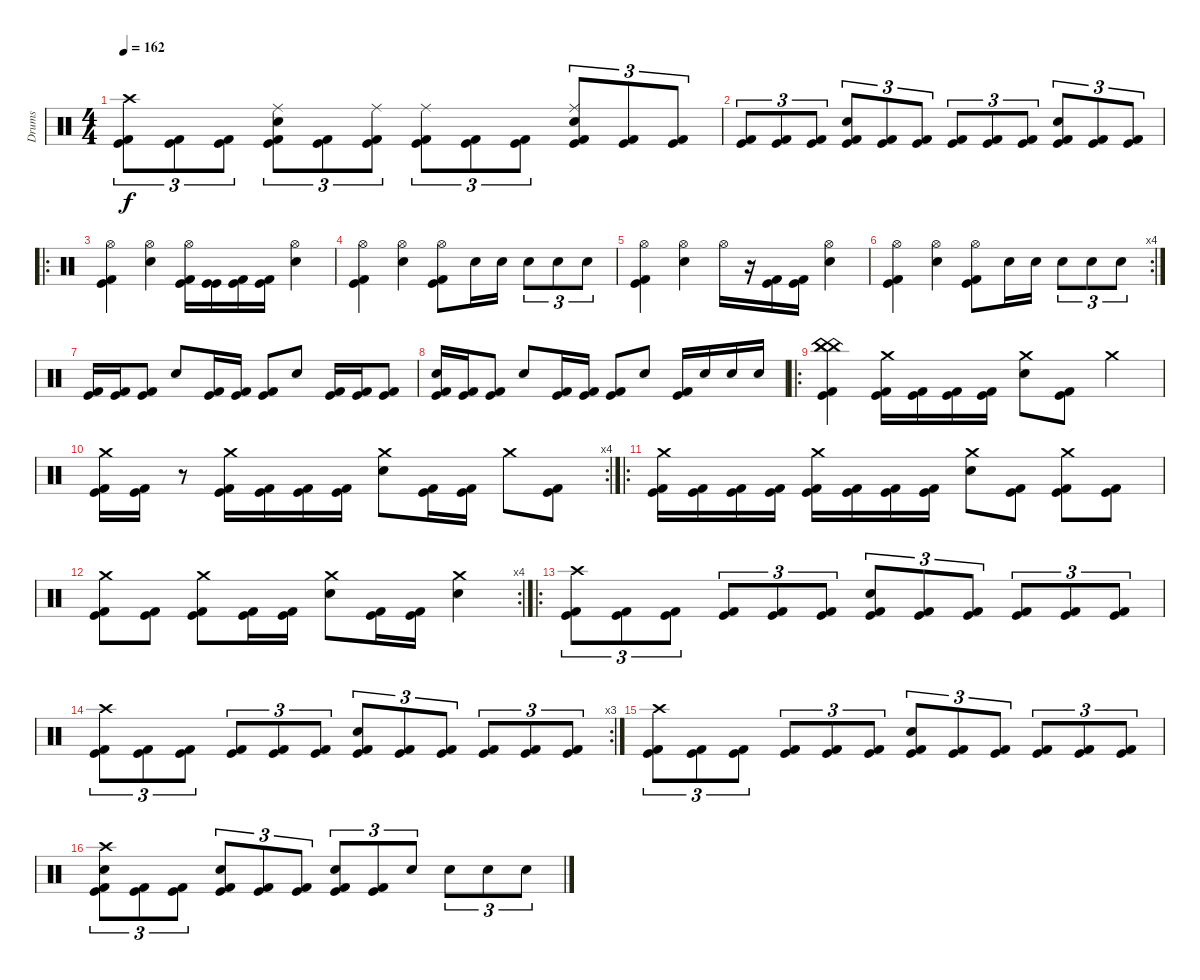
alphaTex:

\track ("Drums" "Drums") {instrument percussion}
\staff {score}
\articulation defaults
\ts (4 4)
\tempo 162
\clef neutral
\ks c
("Crash high (hit)" "Kick (hit)" "Kick (hit) 2").8{tu (3 2) dy f} ("Kick (hit)" "Kick (hit) 2").8{tu (3 2)} ("Kick (hit)" "Kick (hit) 2").8{tu (3 2)} ("Ride (middle)" "Snare (hit) 2" "Kick (hit)" "Kick (hit) 2").8{tu (3 2)} ("Kick (hit)" "Kick (hit) 2").8{tu (3 2)} ("Ride (middle)" "Kick (hit)" "Kick (hit) 2").8{tu (3 2)} ("Ride (middle)" "Kick (hit)" "Kick (hit) 2").8{tu (3 2)} ("Kick (hit)" "Kick (hit) 2").8{tu (3 2)} ("Kick (hit)" "Kick (hit) 2").8{tu (3 2)} ("Ride (middle)" "Snare (hit) 2" "Kick (hit)" "Kick (hit) 2").8{tu (3 2)} ("Kick (hit)" "Kick (hit) 2").8{tu (3 2)} ("Kick (hit)" "Kick (hit) 2").8{tu (3 2)} |
("Kick (hit)" "Kick (hit) 2").8{tu (3 2)} ("Kick (hit)" "Kick (hit) 2").8{tu (3 2)} ("Kick (hit)" "Kick (hit) 2").8{tu (3 2)} ("Snare (hit) 2" "Kick (hit)" "Kick (hit) 2").8{tu (3 2)} ("Kick (hit)" "Kick (hit) 2").8{tu (3 2)} ("Kick (hit)" "Kick (hit) 2").8{tu (3 2)} ("Kick (hit)" "Kick (hit) 2").8{tu (3 2)} ("Kick (hit)" "Kick (hit) 2").8{tu (3 2)} ("Kick (hit)" "Kick (hit) 2").8{tu (3 2)} ("Snare (hit) 2" "Kick (hit)" "Kick (hit) 2").8{tu (3 2)} ("Kick (hit)" "Kick (hit) 2").8{tu (3 2)} ("Kick (hit)" "Kick (hit) 2").8{tu (3 2)} |
\ro
("Hi-Hat (open)" "Kick (hit)" "Kick (hit) 2").4 ("Hi-Hat (open)" "Snare (hit) 2").4 ("Hi-Hat (open)" "Kick (hit)" "Kick (hit) 2").16 ("Kick (hit)" "Kick (hit)").16 ("Kick (hit)" "Kick (hit) 2").16 ("Kick (hit)" "Kick (hit) 2").16 ("Hi-Hat (open)" "Snare (hit) 2").4 |
("Hi-Hat (open)" "Kick (hit)" "Kick (hit) 2").4 ("Hi-Hat (open)" "Snare (hit) 2").4 ("Hi-Hat (open)" "Kick (hit)" "Kick (hit) 2").8 "Snare (hit) 2".16 "Snare (hit) 2".16 "Snare (hit) 2".8{tu (3 2)} "Snare (hit) 2".8{tu (3 2)} "Snare (hit) 2".8{tu (3 2)} |
("Hi-Hat (open)" "Kick (hit)" "Kick (hit) 2").4 ("Hi-Hat (open)" "Snare (hit) 2").4 "Hi-Hat (open)".16 r.16 ("Kick (hit)" "Kick (hit) 2").16 ("Kick (hit)" "Kick (hit) 2").16 ("Hi-Hat (open)" "Snare (hit) 2").4 |
\rc 4
("Hi-Hat (open)" "Kick (hit)" "Kick (hit) 2").4 ("Hi-Hat (open)" "Snare (hit) 2").4 ("Hi-Hat (open)" "Kick (hit)" "Kick (hit) 2").8 "Snare (hit) 2".16 "Snare (hit) 2".16 "Snare (hit) 2".8{tu (3 2)} "Snare (hit) 2".8{tu (3 2)} "Snare (hit) 2".8{tu (3 2)} |
("Kick (hit)" "Kick (hit) 2").16 ("Kick (hit)" "Kick (hit) 2").16 ("Kick (hit)" "Kick (hit) 2").8 "Snare (hit) 2".8 ("Kick (hit)" "Kick (hit) 2").16 ("Kick (hit)" "Kick (hit) 2").16 ("Kick (hit)" "Kick (hit) 2").8 "Snare (hit) 2".8 ("Kick (hit)" "Kick (hit) 2").16 ("Kick (hit)" "Kick (hit) 2").16 ("Kick (hit)" "Kick (hit) 2").8 |
("Snare (hit) 2" "Kick (hit)" "Kick (hit) 2").16 ("Kick (hit)" "Kick (hit) 2").16 ("Kick (hit)" "Kick (hit) 2").8 "Snare (hit) 2".8 ("Kick (hit)" "Kick (hit) 2").16 ("Kick (hit)" "Kick (hit) 2").16 ("Kick (hit)" "Kick (hit) 2").8 "Snare (hit) 2".8 ("Kick (hit)" "Kick (hit) 2").16 "Snare (hit) 2".16 "Snare (hit) 2".16 "Snare (hit) 2".16 |
\ro
("China (hit)" "China (hit)" "China (hit)" "Kick (hit)" "Kick (hit) 2").4 ("Crash medium (hit)" "Kick (hit)" "Kick (hit) 2").16 ("Kick (hit)" "Kick (hit) 2").16 ("Kick (hit)" "Kick (hit) 2").16 ("Kick (hit)" "Kick (hit) 2").16 ("Crash medium (hit)" "Snare (hit) 2").8 ("Kick (hit)" "Kick (hit) 2").8 "Crash medium (hit)".4 |
\rc 4
("Crash medium (hit)" "Kick (hit)" "Kick (hit) 2").16 ("Kick (hit)" "Kick (hit) 2").16 r.8 ("Crash medium (hit)" "Kick (hit)" "Kick (hit) 2").16 ("Kick (hit)" "Kick (hit) 2").16 ("Kick (hit)" "Kick (hit) 2").16 ("Kick (hit)" "Kick (hit) 2").16 ("Crash medium (hit)" "Snare (hit) 2").8 ("Kick (hit)" "Kick (hit) 2").16 ("Kick (hit)" "Kick (hit) 2").16 "Crash medium (hit)".8 ("Kick (hit)" "Kick (hit) 2").8 |
\ro
("Crash medium (hit)" "Kick (hit)" "Kick (hit) 2").16 ("Kick (hit)" "Kick (hit) 2").16 ("Kick (hit)" "Kick (hit) 2").16 ("Kick (hit)" "Kick (hit) 2").16 ("Crash medium (hit)" "Kick (hit)" "Kick (hit) 2").16 ("Kick (hit)" "Kick (hit) 2").16 ("Kick (hit)" "Kick (hit) 2").16 ("Kick (hit)" "Kick (hit) 2").16 ("Crash medium (hit)" "Snare (hit) 2").8 ("Kick (hit)" "Kick (hit) 2").8 ("Crash medium (hit)" "Kick (hit)" "Kick (hit) 2").8 ("Kick (hit)" "Kick (hit) 2").8 |
\rc 4
("Crash medium (hit)" "Kick (hit)" "Kick (hit) 2").8 ("Kick (hit)" "Kick (hit) 2").8 ("Crash medium (hit)" "Kick (hit)" "Kick (hit) 2").8 ("Kick (hit)" "Kick (hit) 2").16 ("Kick (hit)" "Kick (hit) 2").16 ("Crash medium (hit)" "Snare (hit) 2").8 ("Kick (hit)" "Kick (hit) 2").16 ("Kick (hit)" "Kick (hit) 2").16 ("Crash medium (hit)" "Snare (hit) 2").4 |
\ro
("Crash high (hit)" "Kick (hit)" "Kick (hit) 2").8{tu (3 2)} ("Kick (hit)" "Kick (hit) 2").8{tu (3 2)} ("Kick (hit)" "Kick (hit) 2").8{tu (3 2)} ("Kick (hit)" "Kick (hit) 2").8{tu (3 2)} ("Kick (hit)" "Kick (hit) 2").8{tu (3 2)} ("Kick (hit)" "Kick (hit) 2").8{tu (3 2)} ("Snare (hit) 2" "Kick (hit)" "Kick (hit) 2").8{tu (3 2)} ("Kick (hit)" "Kick (hit) 2").8{tu (3 2)} ("Kick (hit)" "Kick (hit) 2").8{tu (3 2)} ("Kick (hit)" "Kick (hit) 2").8{tu (3 2)} ("Kick (hit)" "Kick (hit) 2").8{tu (3 2)} ("Kick (hit)" "Kick (hit) 2").8{tu (3 2)} |
\rc 3
("Crash high (hit)" "Kick (hit)" "Kick (hit) 2").8{tu (3 2)} ("Kick (hit)" "Kick (hit) 2").8{tu (3 2)} ("Kick (hit)" "Kick (hit) 2").8{tu (3 2)} ("Kick (hit)" "Kick (hit) 2").8{tu (3 2)} ("Kick (hit)" "Kick (hit) 2").8{tu (3 2)} ("Kick (hit)" "Kick (hit) 2").8{tu (3 2)} ("Snare (hit) 2" "Kick (hit)" "Kick (hit) 2").8{tu (3 2)} ("Kick (hit)" "Kick (hit) 2").8{tu (3 2)} ("Kick (hit)" "Kick (hit) 2").8{tu (3 2)} ("Kick (hit)" "Kick (hit) 2").8{tu (3 2)} ("Kick (hit)" "Kick (hit) 2").8{tu (3 2)} ("Kick (hit)" "Kick (hit) 2").8{tu (3 2)} |
("Crash high (hit)" "Kick (hit)" "Kick (hit) 2").8{tu (3 2)} ("Kick (hit)" "Kick (hit) 2").8{tu (3 2)} ("Kick (hit)" "Kick (hit) 2").8{tu (3 2)} ("Kick (hit)" "Kick (hit) 2").8{tu (3 2)} ("Kick (hit)" "Kick (hit) 2").8{tu (3 2)} ("Kick (hit)" "Kick (hit) 2").8{tu (3 2)} ("Snare (hit) 2" "Kick (hit)" "Kick (hit) 2").8{tu (3 2)} ("Kick (hit)" "Kick (hit) 2").8{tu (3 2)} ("Kick (hit)" "Kick (hit) 2").8{tu (3 2)} ("Kick (hit)" "Kick (hit) 2").8{tu (3 2)} ("Kick (hit)" "Kick (hit) 2").8{tu (3 2)} ("Kick (hit)" "Kick (hit) 2").8{tu (3 2)} |
("Crash high (hit)" "Snare (hit) 2" "Kick (hit)" "Kick (hit) 2").8{tu (3 2)} ("Kick (hit)" "Kick (hit) 2").8{tu (3 2)} ("Kick (hit)" "Kick (hit) 2").8{tu (3 2)} ("Snare (hit) 2" "Kick (hit)" "Kick (hit) 2").8{tu (3 2)} ("Kick (hit)" "Kick (hit) 2").8{tu (3 2)} ("Kick (hit)" "Kick (hit) 2").8{tu (3 2)} ("Snare (hit) 2" "Kick (hit)" "Kick (hit) 2").8{tu (3 2)} ("Kick (hit)" "Kick (hit) 2").8{tu (3 2)} "Snare (hit) 2".8{tu (3 2)} "Snare (hit) 2".8{tu (3 2)} "Snare (hit) 2".8{tu (3 2)} "Snare (hit) 2".8{tu (3 2)}
